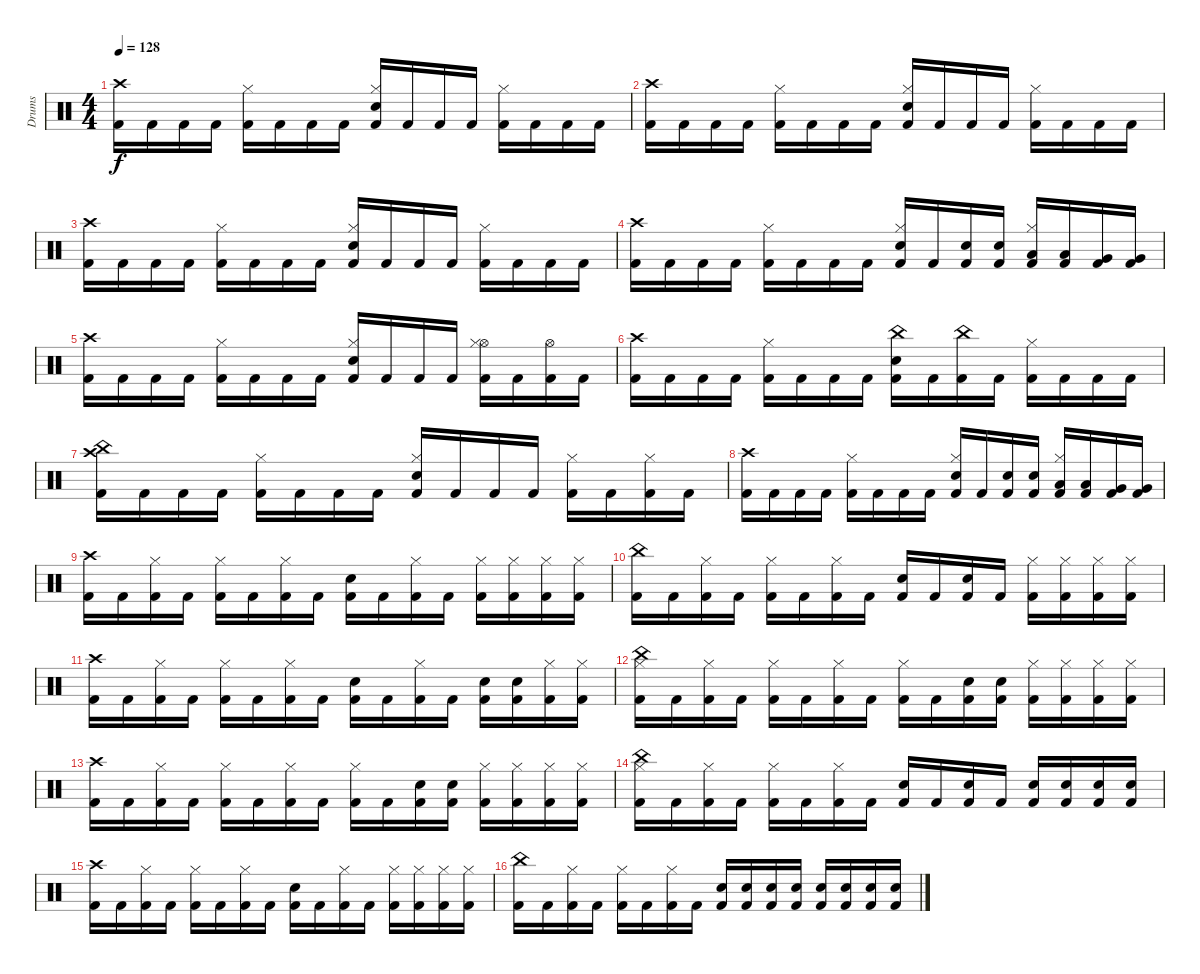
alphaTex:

\track ("Drums" "Drums") {instrument percussion}
\staff {score}
\articulation defaults
\ts (4 4)
\tempo 128
\clef neutral
\ks c
("Crash high (hit)" "Kick (hit) 2").16{dy f} "Kick (hit) 2".16 "Kick (hit) 2".16 "Kick (hit) 2".16 ("Hi-Hat (closed)" "Kick (hit) 2").16 "Kick (hit) 2".16 "Kick (hit) 2".16 "Kick (hit) 2".16 ("Electric Snare (hit)" "Hi-Hat (closed)" "Kick (hit) 2").16 "Kick (hit) 2".16 "Kick (hit) 2".16 "Kick (hit) 2".16 ("Hi-Hat (closed)" "Kick (hit) 2").16 "Kick (hit) 2".16 "Kick (hit) 2".16 "Kick (hit) 2".16 |
("Crash high (hit)" "Kick (hit) 2").16 "Kick (hit) 2".16 "Kick (hit) 2".16 "Kick (hit) 2".16 ("Hi-Hat (closed)" "Kick (hit) 2").16 "Kick (hit) 2".16 "Kick (hit) 2".16 "Kick (hit) 2".16 ("Electric Snare (hit)" "Hi-Hat (closed)" "Kick (hit) 2").16 "Kick (hit) 2".16 "Kick (hit) 2".16 "Kick (hit) 2".16 ("Hi-Hat (closed)" "Kick (hit) 2").16 "Kick (hit) 2".16 "Kick (hit) 2".16 "Kick (hit) 2".16 |
("Crash high (hit)" "Kick (hit) 2").16 "Kick (hit) 2".16 "Kick (hit) 2".16 "Kick (hit) 2".16 ("Hi-Hat (closed)" "Kick (hit) 2").16 "Kick (hit) 2".16 "Kick (hit) 2".16 "Kick (hit) 2".16 ("Electric Snare (hit)" "Hi-Hat (closed)" "Kick (hit) 2").16 "Kick (hit) 2".16 "Kick (hit) 2".16 "Kick (hit) 2".16 ("Hi-Hat (closed)" "Kick (hit) 2").16 "Kick (hit) 2".16 "Kick (hit) 2".16 "Kick (hit) 2".16 |
("Crash high (hit)" "Kick (hit) 2").16 "Kick (hit) 2".16 "Kick (hit) 2".16 "Kick (hit) 2".16 ("Hi-Hat (closed)" "Kick (hit) 2").16 "Kick (hit) 2".16 "Kick (hit) 2".16 "Kick (hit) 2".16 ("Electric Snare (hit)" "Hi-Hat (closed)" "Kick (hit) 2").16 "Kick (hit) 2".16 ("Electric Snare (hit)" "Kick (hit) 2").16 ("Electric Snare (hit)" "Kick (hit) 2").16 ("Low Tom (hit)" "Hi-Hat (closed)" "Kick (hit) 2").16 ("Low Tom (hit)" "Kick (hit) 2").16 ("Very Low Tom (hit)" "Kick (hit) 2").16 ("Very Low Tom (hit)" "Kick (hit) 2").16 |
("Crash high (hit)" "Kick (hit) 2").16 "Kick (hit) 2".16 "Kick (hit) 2".16 "Kick (hit) 2".16 ("Hi-Hat (closed)" "Kick (hit) 2").16 "Kick (hit) 2".16 "Kick (hit) 2".16 "Kick (hit) 2".16 ("Electric Snare (hit)" "Hi-Hat (closed)" "Kick (hit) 2").16 "Kick (hit) 2".16 "Kick (hit) 2".16 "Kick (hit) 2".16 ("Hi-Hat (open)" "Hi-Hat (closed)" "Kick (hit) 2").16 "Kick (hit) 2".16 ("Hi-Hat (open)" "Kick (hit) 2").16 "Kick (hit) 2".16 |
("Crash high (hit)" "Kick (hit) 2").16 "Kick (hit) 2".16 "Kick (hit) 2".16 "Kick (hit) 2".16 ("Hi-Hat (closed)" "Kick (hit) 2").16 "Kick (hit) 2".16 "Kick (hit) 2".16 "Kick (hit) 2".16 ("Electric Snare (hit)" "China (hit)" "Kick (hit) 2").16 "Kick (hit) 2".16 ("China (hit)" "Kick (hit) 2").16 "Kick (hit) 2".16 ("Hi-Hat (closed)" "Kick (hit) 2").16 "Kick (hit) 2".16 "Kick (hit) 2".16 "Kick (hit) 2".16 |
("China (hit)" "Crash high (hit)" "Kick (hit) 2").16 "Kick (hit) 2".16 "Kick (hit) 2".16 "Kick (hit) 2".16 ("Hi-Hat (closed)" "Kick (hit) 2").16 "Kick (hit) 2".16 "Kick (hit) 2".16 "Kick (hit) 2".16 ("Electric Snare (hit)" "Hi-Hat (closed)" "Kick (hit) 2").16 "Kick (hit) 2".16 "Kick (hit) 2".16 "Kick (hit) 2".16 ("Hi-Hat (closed)" "Kick (hit) 2").16 "Kick (hit) 2".16 ("Hi-Hat (closed)" "Kick (hit) 2").16 "Kick (hit) 2".16 |
("Crash high (hit)" "Kick (hit) 2").16 "Kick (hit) 2".16 "Kick (hit) 2".16 "Kick (hit) 2".16 ("Hi-Hat (closed)" "Kick (hit) 2").16 "Kick (hit) 2".16 "Kick (hit) 2".16 "Kick (hit) 2".16 ("Electric Snare (hit)" "Hi-Hat (closed)" "Kick (hit) 2").16 "Kick (hit) 2".16 ("Electric Snare (hit)" "Kick (hit) 2").16 ("Electric Snare (hit)" "Kick (hit) 2").16 ("Low Tom (hit)" "Hi-Hat (closed)" "Kick (hit) 2").16 ("Low Tom (hit)" "Kick (hit) 2").16 ("Very Low Tom (hit)" "Kick (hit) 2").16 ("Very Low Tom (hit)" "Kick (hit) 2").16 |
("Crash high (hit)" "Kick (hit) 2").16 "Kick (hit) 2".16 ("Hi-Hat (closed)" "Kick (hit) 2").16 "Kick (hit) 2".16 ("Hi-Hat (closed)" "Kick (hit) 2").16 "Kick (hit) 2".16 ("Hi-Hat (closed)" "Kick (hit) 2").16 "Kick (hit) 2".16 ("Electric Snare (hit)" "Kick (hit) 2").16 "Kick (hit) 2".16 ("Hi-Hat (closed)" "Kick (hit) 2").16 "Kick (hit) 2".16 ("Hi-Hat (closed)" "Kick (hit) 2").16 ("Hi-Hat (closed)" "Kick (hit) 2").16 ("Hi-Hat (closed)" "Kick (hit) 2").16 ("Hi-Hat (closed)" "Kick (hit) 2").16 |
("China (hit)" "Kick (hit) 2").16 "Kick (hit) 2".16 ("Hi-Hat (closed)" "Kick (hit) 2").16 "Kick (hit) 2".16 ("Hi-Hat (closed)" "Kick (hit) 2").16 "Kick (hit) 2".16 ("Hi-Hat (closed)" "Kick (hit) 2").16 "Kick (hit) 2".16 ("Electric Snare (hit)" "Kick (hit) 2").16 "Kick (hit) 2".16 ("Electric Snare (hit)" "Kick (hit) 2").16 "Kick (hit) 2".16 ("Hi-Hat (closed)" "Kick (hit) 2").16 ("Hi-Hat (closed)" "Kick (hit) 2").16 ("Hi-Hat (closed)" "Kick (hit) 2").16 ("Hi-Hat (closed)" "Kick (hit) 2").16 |
("Crash high (hit)" "Kick (hit) 2").16 "Kick (hit) 2".16 ("Hi-Hat (closed)" "Kick (hit) 2").16 "Kick (hit) 2".16 ("Hi-Hat (closed)" "Kick (hit) 2").16 "Kick (hit) 2".16 ("Hi-Hat (closed)" "Kick (hit) 2").16 "Kick (hit) 2".16 ("Electric Snare (hit)" "Kick (hit) 2").16 "Kick (hit) 2".16 ("Hi-Hat (closed)" "Kick (hit) 2").16 "Kick (hit) 2".16 ("Electric Snare (hit)" "Kick (hit) 2").16 ("Electric Snare (hit)" "Kick (hit) 2").16 ("Hi-Hat (closed)" "Kick (hit) 2").16 ("Hi-Hat (closed)" "Kick (hit) 2").16 |
("China (hit)" "Hi-Hat (closed)" "Kick (hit) 2").16 "Kick (hit) 2".16 ("Hi-Hat (closed)" "Kick (hit) 2").16 "Kick (hit) 2".16 ("Hi-Hat (closed)" "Kick (hit) 2").16 "Kick (hit) 2".16 ("Hi-Hat (closed)" "Kick (hit) 2").16 "Kick (hit) 2".16 ("Hi-Hat (closed)" "Kick (hit) 2").16 "Kick (hit) 2".16 ("Electric Snare (hit)" "Kick (hit) 2").16 ("Electric Snare (hit)" "Kick (hit) 2").16 ("Hi-Hat (closed)" "Kick (hit) 2").16 ("Hi-Hat (closed)" "Kick (hit) 2").16 ("Hi-Hat (closed)" "Kick (hit) 2").16 ("Hi-Hat (closed)" "Kick (hit) 2").16 |
("Crash high (hit)" "Kick (hit) 2").16 "Kick (hit) 2".16 ("Hi-Hat (closed)" "Kick (hit) 2").16 "Kick (hit) 2".16 ("Hi-Hat (closed)" "Kick (hit) 2").16 "Kick (hit) 2".16 ("Hi-Hat (closed)" "Kick (hit) 2").16 "Kick (hit) 2".16 ("Hi-Hat (closed)" "Kick (hit) 2").16 "Kick (hit) 2".16 ("Electric Snare (hit)" "Kick (hit) 2").16 ("Electric Snare (hit)" "Kick (hit) 2").16 ("Hi-Hat (closed)" "Kick (hit) 2").16 ("Hi-Hat (closed)" "Kick (hit) 2").16 ("Hi-Hat (closed)" "Kick (hit) 2").16 ("Hi-Hat (closed)" "Kick (hit) 2").16 |
("China (hit)" "Hi-Hat (closed)" "Kick (hit) 2").16 "Kick (hit) 2".16 ("Hi-Hat (closed)" "Kick (hit) 2").16 "Kick (hit) 2".16 ("Hi-Hat (closed)" "Kick (hit) 2").16 "Kick (hit) 2".16 ("Hi-Hat (closed)" "Kick (hit) 2").16 "Kick (hit) 2".16 ("Electric Snare (hit)" "Kick (hit) 2").16 "Kick (hit) 2".16 ("Electric Snare (hit)" "Kick (hit) 2").16 "Kick (hit) 2".16 ("Electric Snare (hit)" "Kick (hit) 2").16 ("Electric Snare (hit)" "Kick (hit) 2").16 ("Electric Snare (hit)" "Kick (hit) 2").16 ("Electric Snare (hit)" "Kick (hit) 2").16 |
("Crash high (hit)" "Kick (hit) 2").16 "Kick (hit) 2".16 ("Hi-Hat (closed)" "Kick (hit) 2").16 "Kick (hit) 2".16 ("Hi-Hat (closed)" "Kick (hit) 2").16 "Kick (hit) 2".16 ("Hi-Hat (closed)" "Kick (hit) 2").16 "Kick (hit) 2".16 ("Electric Snare (hit)" "Kick (hit) 2").16 "Kick (hit) 2".16 ("Hi-Hat (closed)" "Kick (hit) 2").16 "Kick (hit) 2".16 ("Hi-Hat (closed)" "Kick (hit) 2").16 ("Hi-Hat (closed)" "Kick (hit) 2").16 ("Hi-Hat (closed)" "Kick (hit) 2").16 ("Hi-Hat (closed)" "Kick (hit) 2").16 |
("China (hit)" "Kick (hit) 2").16 "Kick (hit) 2".16 ("Hi-Hat (closed)" "Kick (hit) 2").16 "Kick (hit) 2".16 ("Hi-Hat (closed)" "Kick (hit) 2").16 "Kick (hit) 2".16 ("Hi-Hat (closed)" "Kick (hit) 2").16 "Kick (hit) 2".16 ("Electric Snare (hit)" "Kick (hit) 2").16 ("Electric Snare (hit)" "Kick (hit) 2").16 ("Electric Snare (hit)" "Kick (hit) 2").16 ("Electric Snare (hit)" "Kick (hit) 2").16 ("Electric Snare (hit)" "Kick (hit) 2").16 ("Electric Snare (hit)" "Kick (hit) 2").16 ("Electric Snare (hit)" "Kick (hit) 2").16 ("Electric Snare (hit)" "Kick (hit) 2").16
